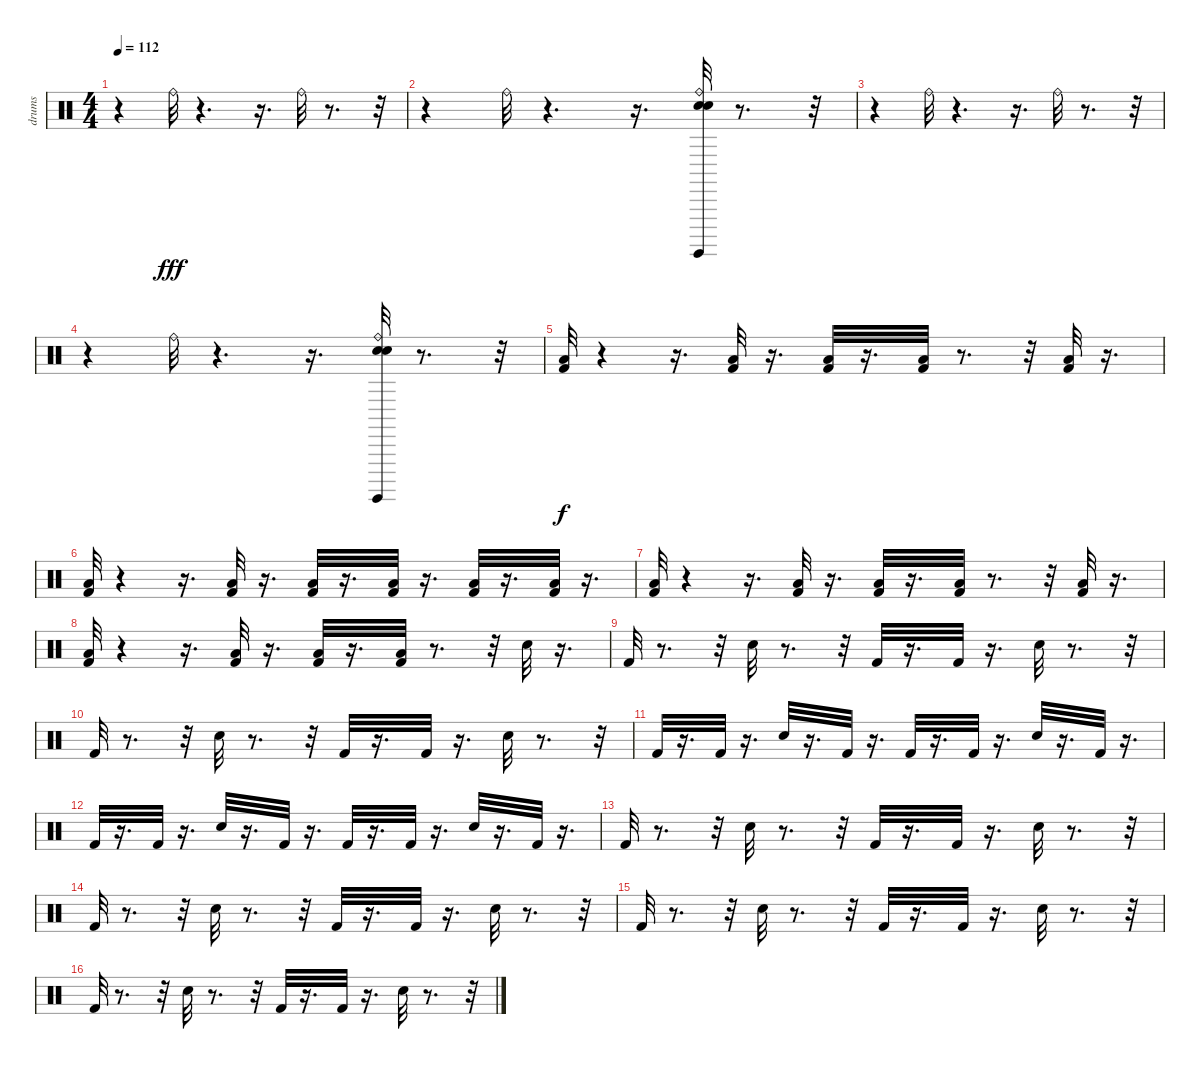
\track ("drums" "drums") {instrument percussion}
\staff {score}
\articulation defaults
\ts (4 4)
\tempo 112
\clef neutral
\ks c
r.4{dy fff} "Ride (bell)".32 r.4{d} r.16{d} "Ride (bell)".32 r.8{d} r.32 |
r.4 "Ride (bell)".32 r.4{d} r.16{d} ("Ride (bell)" "Snare (hit) 2" "Electric Snare (hit)" "Surdo (hit)").32 r.8{d} r.32 |
r.4 "Ride (bell)".32 r.4{d} r.16{d} "Ride (bell)".32 r.8{d} r.32 |
r.4 "Ride (bell)".32 r.4{d} r.16{d} ("Ride (bell)" "Snare (hit) 2" "Electric Snare (hit)" "Surdo (hit)").32 r.8{d} r.32 |
("Low Floor Tom (hit)" "Kick (hit) 2").32{dy f} r.4 r.16{d} ("Kick (hit) 2" "Low Floor Tom (hit)").32 r.16{d} ("Kick (hit) 2" "Low Floor Tom (hit)").32 r.16{d} ("Low Floor Tom (hit)" "Kick (hit) 2").32 r.8{d} r.32 ("Low Floor Tom (hit)" "Kick (hit) 2").32 r.16{d} |
("Low Floor Tom (hit)" "Kick (hit) 2").32 r.4 r.16{d} ("Kick (hit) 2" "Low Floor Tom (hit)").32 r.16{d} ("Kick (hit) 2" "Low Floor Tom (hit)").32 r.16{d} ("Low Floor Tom (hit)" "Kick (hit) 2").32 r.16{d} ("Kick (hit) 2" "Low Floor Tom (hit)").32 r.16{d} ("Low Floor Tom (hit)" "Kick (hit) 2").32 r.16{d} |
("Low Floor Tom (hit)" "Kick (hit) 2").32 r.4 r.16{d} ("Kick (hit) 2" "Low Floor Tom (hit)").32 r.16{d} ("Kick (hit) 2" "Low Floor Tom (hit)").32 r.16{d} ("Low Floor Tom (hit)" "Kick (hit) 2").32 r.8{d} r.32 ("Low Floor Tom (hit)" "Kick (hit) 2").32 r.16{d} |
("Low Floor Tom (hit)" "Kick (hit) 2").32 r.4 r.16{d} ("Kick (hit) 2" "Low Floor Tom (hit)").32 r.16{d} ("Kick (hit) 2" "Low Floor Tom (hit)").32 r.16{d} ("Low Floor Tom (hit)" "Kick (hit) 2").32 r.8{d} r.32 "Snare (hit) 2".32 r.16{d} |
"Kick (hit) 2".32 r.8{d} r.32 "Snare (hit) 2".32 r.8{d} r.32 "Kick (hit) 2".32 r.16{d} "Kick (hit) 2".32 r.16{d} "Snare (hit) 2".32 r.8{d} r.32 |
"Kick (hit) 2".32 r.8{d} r.32 "Snare (hit) 2".32 r.8{d} r.32 "Kick (hit) 2".32 r.16{d} "Kick (hit) 2".32 r.16{d} "Snare (hit) 2".32 r.8{d} r.32 |
"Kick (hit) 2".32 r.16{d} "Kick (hit) 2".32 r.16{d} "Snare (hit) 2".32 r.16{d} "Kick (hit) 2".32 r.16{d} "Kick (hit) 2".32 r.16{d} "Kick (hit) 2".32 r.16{d} "Snare (hit) 2".32 r.16{d} "Kick (hit) 2".32 r.16{d} |
"Kick (hit) 2".32 r.16{d} "Kick (hit) 2".32 r.16{d} "Snare (hit) 2".32 r.16{d} "Kick (hit) 2".32 r.16{d} "Kick (hit) 2".32 r.16{d} "Kick (hit) 2".32 r.16{d} "Snare (hit) 2".32 r.16{d} "Kick (hit) 2".32 r.16{d} |
"Kick (hit) 2".32 r.8{d} r.32 "Snare (hit) 2".32 r.8{d} r.32 "Kick (hit) 2".32 r.16{d} "Kick (hit) 2".32 r.16{d} "Snare (hit) 2".32 r.8{d} r.32 |
"Kick (hit) 2".32 r.8{d} r.32 "Snare (hit) 2".32 r.8{d} r.32 "Kick (hit) 2".32 r.16{d} "Kick (hit) 2".32 r.16{d} "Snare (hit) 2".32 r.8{d} r.32 |
"Kick (hit) 2".32 r.8{d} r.32 "Snare (hit) 2".32 r.8{d} r.32 "Kick (hit) 2".32 r.16{d} "Kick (hit) 2".32 r.16{d} "Snare (hit) 2".32 r.8{d} r.32 |
"Kick (hit) 2".32 r.8{d} r.32 "Snare (hit) 2".32 r.8{d} r.32 "Kick (hit) 2".32 r.16{d} "Kick (hit) 2".32 r.16{d} "Snare (hit) 2".32 r.8{d} r.32
